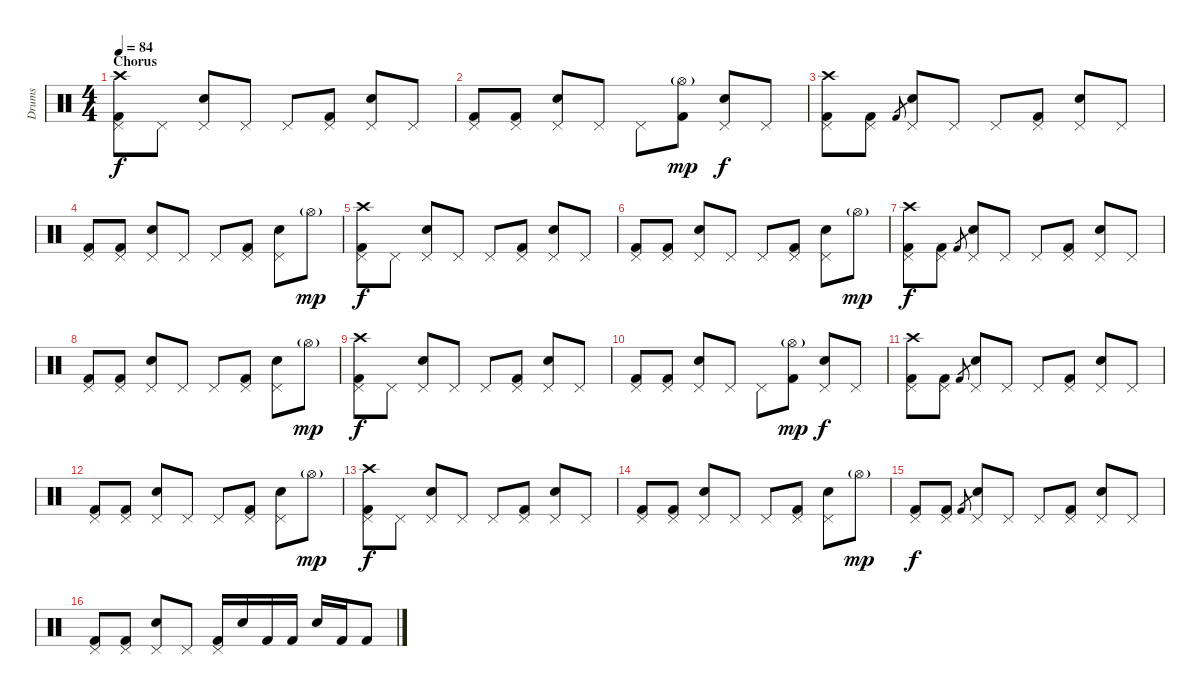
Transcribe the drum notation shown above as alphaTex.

\track ("Drums" "Drums") {instrument percussion}
\staff {score}
\articulation defaults
\ts (4 4)
\section ("" "Chorus ")
\tempo 84
\clef neutral
\ks c
("Crash high (hit)" "Pedal Hi-Hat (hit)" "Kick (hit) 2").8{dy f} "Pedal Hi-Hat (hit)".8 ("Pedal Hi-Hat (hit)" "Electric Snare (hit)").8 "Pedal Hi-Hat (hit)".8 "Pedal Hi-Hat (hit)".8 ("Pedal Hi-Hat (hit)" "Kick (hit) 2").8 ("Pedal Hi-Hat (hit)" "Electric Snare (hit)").8 "Pedal Hi-Hat (hit)".8 |
("Pedal Hi-Hat (hit)" "Kick (hit) 2").8 ("Pedal Hi-Hat (hit)" "Kick (hit) 2").8 ("Pedal Hi-Hat (hit)" "Electric Snare (hit)").8 "Pedal Hi-Hat (hit)".8 "Pedal Hi-Hat (hit)".8 ("Hi-Hat (open)"{g} "Kick (hit) 2").8{dy mp} ("Pedal Hi-Hat (hit)" "Electric Snare (hit)").8{dy f} "Pedal Hi-Hat (hit)".8 |
("Crash high (hit)" "Pedal Hi-Hat (hit)" "Kick (hit) 2").8 ("Pedal Hi-Hat (hit)" "Kick (hit) 2").8 "Kick (hit) 2".8{gr} ("Pedal Hi-Hat (hit)" "Electric Snare (hit)").8 "Pedal Hi-Hat (hit)".8 "Pedal Hi-Hat (hit)".8 ("Pedal Hi-Hat (hit)" "Kick (hit) 2").8 ("Pedal Hi-Hat (hit)" "Electric Snare (hit)").8 "Pedal Hi-Hat (hit)".8 |
("Pedal Hi-Hat (hit)" "Kick (hit) 2").8 ("Pedal Hi-Hat (hit)" "Kick (hit) 2").8 ("Pedal Hi-Hat (hit)" "Electric Snare (hit)").8 "Pedal Hi-Hat (hit)".8 "Pedal Hi-Hat (hit)".8 ("Pedal Hi-Hat (hit)" "Kick (hit) 2").8 ("Pedal Hi-Hat (hit)" "Electric Snare (hit)").8 "Hi-Hat (open)"{g}.8{dy mp} |
("Crash high (hit)" "Pedal Hi-Hat (hit)" "Kick (hit) 2").8{dy f} "Pedal Hi-Hat (hit)".8 ("Pedal Hi-Hat (hit)" "Electric Snare (hit)").8 "Pedal Hi-Hat (hit)".8 "Pedal Hi-Hat (hit)".8 ("Pedal Hi-Hat (hit)" "Kick (hit) 2").8 ("Pedal Hi-Hat (hit)" "Electric Snare (hit)").8 "Pedal Hi-Hat (hit)".8 |
("Pedal Hi-Hat (hit)" "Kick (hit) 2").8 ("Pedal Hi-Hat (hit)" "Kick (hit) 2").8 ("Pedal Hi-Hat (hit)" "Electric Snare (hit)").8 "Pedal Hi-Hat (hit)".8 "Pedal Hi-Hat (hit)".8 ("Pedal Hi-Hat (hit)" "Kick (hit) 2").8 ("Pedal Hi-Hat (hit)" "Electric Snare (hit)").8 "Hi-Hat (open)"{g}.8{dy mp} |
("Crash high (hit)" "Pedal Hi-Hat (hit)" "Kick (hit) 2").8{dy f} ("Pedal Hi-Hat (hit)" "Kick (hit) 2").8 "Kick (hit) 2".8{gr} ("Pedal Hi-Hat (hit)" "Electric Snare (hit)").8 "Pedal Hi-Hat (hit)".8 "Pedal Hi-Hat (hit)".8 ("Pedal Hi-Hat (hit)" "Kick (hit) 2").8 ("Pedal Hi-Hat (hit)" "Electric Snare (hit)").8 "Pedal Hi-Hat (hit)".8 |
("Pedal Hi-Hat (hit)" "Kick (hit) 2").8 ("Pedal Hi-Hat (hit)" "Kick (hit) 2").8 ("Pedal Hi-Hat (hit)" "Electric Snare (hit)").8 "Pedal Hi-Hat (hit)".8 "Pedal Hi-Hat (hit)".8 ("Pedal Hi-Hat (hit)" "Kick (hit) 2").8 ("Pedal Hi-Hat (hit)" "Electric Snare (hit)").8 "Hi-Hat (open)"{g}.8{dy mp} |
("Crash high (hit)" "Pedal Hi-Hat (hit)" "Kick (hit) 2").8{dy f} "Pedal Hi-Hat (hit)".8 ("Pedal Hi-Hat (hit)" "Electric Snare (hit)").8 "Pedal Hi-Hat (hit)".8 "Pedal Hi-Hat (hit)".8 ("Pedal Hi-Hat (hit)" "Kick (hit) 2").8 ("Pedal Hi-Hat (hit)" "Electric Snare (hit)").8 "Pedal Hi-Hat (hit)".8 |
("Pedal Hi-Hat (hit)" "Kick (hit) 2").8 ("Pedal Hi-Hat (hit)" "Kick (hit) 2").8 ("Pedal Hi-Hat (hit)" "Electric Snare (hit)").8 "Pedal Hi-Hat (hit)".8 "Pedal Hi-Hat (hit)".8 ("Hi-Hat (open)"{g} "Kick (hit) 2").8{dy mp} ("Pedal Hi-Hat (hit)" "Electric Snare (hit)").8{dy f} "Pedal Hi-Hat (hit)".8 |
("Crash high (hit)" "Pedal Hi-Hat (hit)" "Kick (hit) 2").8 ("Pedal Hi-Hat (hit)" "Kick (hit) 2").8 "Kick (hit) 2".8{gr} ("Pedal Hi-Hat (hit)" "Electric Snare (hit)").8 "Pedal Hi-Hat (hit)".8 "Pedal Hi-Hat (hit)".8 ("Pedal Hi-Hat (hit)" "Kick (hit) 2").8 ("Pedal Hi-Hat (hit)" "Electric Snare (hit)").8 "Pedal Hi-Hat (hit)".8 |
("Pedal Hi-Hat (hit)" "Kick (hit) 2").8 ("Pedal Hi-Hat (hit)" "Kick (hit) 2").8 ("Pedal Hi-Hat (hit)" "Electric Snare (hit)").8 "Pedal Hi-Hat (hit)".8 "Pedal Hi-Hat (hit)".8 ("Pedal Hi-Hat (hit)" "Kick (hit) 2").8 ("Pedal Hi-Hat (hit)" "Electric Snare (hit)").8 "Hi-Hat (open)"{g}.8{dy mp} |
("Crash high (hit)" "Pedal Hi-Hat (hit)" "Kick (hit) 2").8{dy f} "Pedal Hi-Hat (hit)".8 ("Pedal Hi-Hat (hit)" "Electric Snare (hit)").8 "Pedal Hi-Hat (hit)".8 "Pedal Hi-Hat (hit)".8 ("Pedal Hi-Hat (hit)" "Kick (hit) 2").8 ("Pedal Hi-Hat (hit)" "Electric Snare (hit)").8 "Pedal Hi-Hat (hit)".8 |
("Pedal Hi-Hat (hit)" "Kick (hit) 2").8 ("Pedal Hi-Hat (hit)" "Kick (hit) 2").8 ("Pedal Hi-Hat (hit)" "Electric Snare (hit)").8 "Pedal Hi-Hat (hit)".8 "Pedal Hi-Hat (hit)".8 ("Pedal Hi-Hat (hit)" "Kick (hit) 2").8 ("Pedal Hi-Hat (hit)" "Electric Snare (hit)").8 "Hi-Hat (open)"{g}.8{dy mp} |
("Pedal Hi-Hat (hit)" "Kick (hit) 2").8{dy f} ("Pedal Hi-Hat (hit)" "Kick (hit) 2").8 "Kick (hit) 2".8{gr} ("Pedal Hi-Hat (hit)" "Electric Snare (hit)").8 "Pedal Hi-Hat (hit)".8 "Pedal Hi-Hat (hit)".8 ("Pedal Hi-Hat (hit)" "Kick (hit) 2").8 ("Pedal Hi-Hat (hit)" "Electric Snare (hit)").8 "Pedal Hi-Hat (hit)".8 |
("Pedal Hi-Hat (hit)" "Kick (hit) 2").8 ("Pedal Hi-Hat (hit)" "Kick (hit) 2").8 ("Pedal Hi-Hat (hit)" "Electric Snare (hit)").8 "Pedal Hi-Hat (hit)".8 ("Pedal Hi-Hat (hit)" "Kick (hit) 2").16 "Electric Snare (hit)".16 "Kick (hit) 2".16 "Kick (hit) 2".16 "Electric Snare (hit)".16 "Kick (hit) 2".16 "Kick (hit) 2".8
